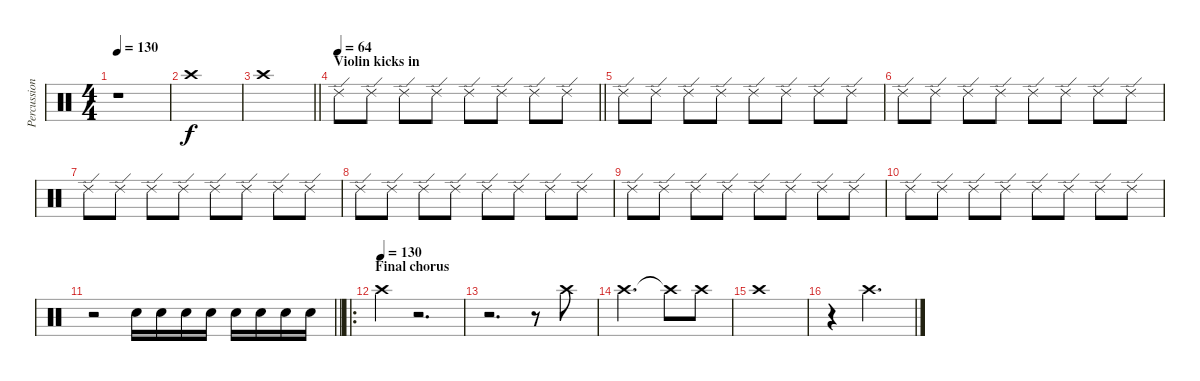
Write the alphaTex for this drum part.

\track ("Percussion 2" "Percussion") {instrument percussion}
\staff {score}
\articulation defaults
\ts (4 4)
\tempo 130
\clef neutral
\ks c
r.1{dy f} |
"Crash high (hit)".1 |
\barLineRight lightlight "Crash high (hit)".1
|
\section ("" "Violin kicks in")
\tempo 64
\barLineRight lightlight "Ride (edge) 2".8 "Ride (edge) 2".8 "Ride (edge) 2".8 "Ride (edge) 2".8 "Ride (edge) 2".8 "Ride (edge) 2".8 "Ride (edge) 2".8 "Ride (edge) 2".8
|
"Ride (edge) 2".8 "Ride (edge) 2".8 "Ride (edge) 2".8 "Ride (edge) 2".8 "Ride (edge) 2".8 "Ride (edge) 2".8 "Ride (edge) 2".8 "Ride (edge) 2".8 |
"Ride (edge) 2".8 "Ride (edge) 2".8 "Ride (edge) 2".8 "Ride (edge) 2".8 "Ride (edge) 2".8 "Ride (edge) 2".8 "Ride (edge) 2".8 "Ride (edge) 2".8 |
"Ride (edge) 2".8 "Ride (edge) 2".8 "Ride (edge) 2".8 "Ride (edge) 2".8 "Ride (edge) 2".8 "Ride (edge) 2".8 "Ride (edge) 2".8 "Ride (edge) 2".8 |
"Ride (edge) 2".8 "Ride (edge) 2".8 "Ride (edge) 2".8 "Ride (edge) 2".8 "Ride (edge) 2".8 "Ride (edge) 2".8 "Ride (edge) 2".8 "Ride (edge) 2".8 |
"Ride (edge) 2".8 "Ride (edge) 2".8 "Ride (edge) 2".8 "Ride (edge) 2".8 "Ride (edge) 2".8 "Ride (edge) 2".8 "Ride (edge) 2".8 "Ride (edge) 2".8 |
"Ride (edge) 2".8 "Ride (edge) 2".8 "Ride (edge) 2".8 "Ride (edge) 2".8 "Ride (edge) 2".8 "Ride (edge) 2".8 "Ride (edge) 2".8 "Ride (edge) 2".8 |
\barLineRight lightlight
r.2 "Electric Snare (hit)".16 "Electric Snare (hit)".16 "Electric Snare (hit)".16 "Electric Snare (hit)".16 "Electric Snare (hit)".16 "Electric Snare (hit)".16 "Electric Snare (hit)".16 "Electric Snare (hit)".16 |
\ro
\section ("" "Final chorus")
\tempo (130)
"Crash high (hit)".4 r.2{d} |
r.2{d} r.8 "Crash high (hit)".8 |
"Crash high (hit)".2{d} "Crash high (hit)"{t}.8 "Crash high (hit)".8 |
"Crash high (hit)".1 |
r.4 "Crash high (hit)".2{d}
